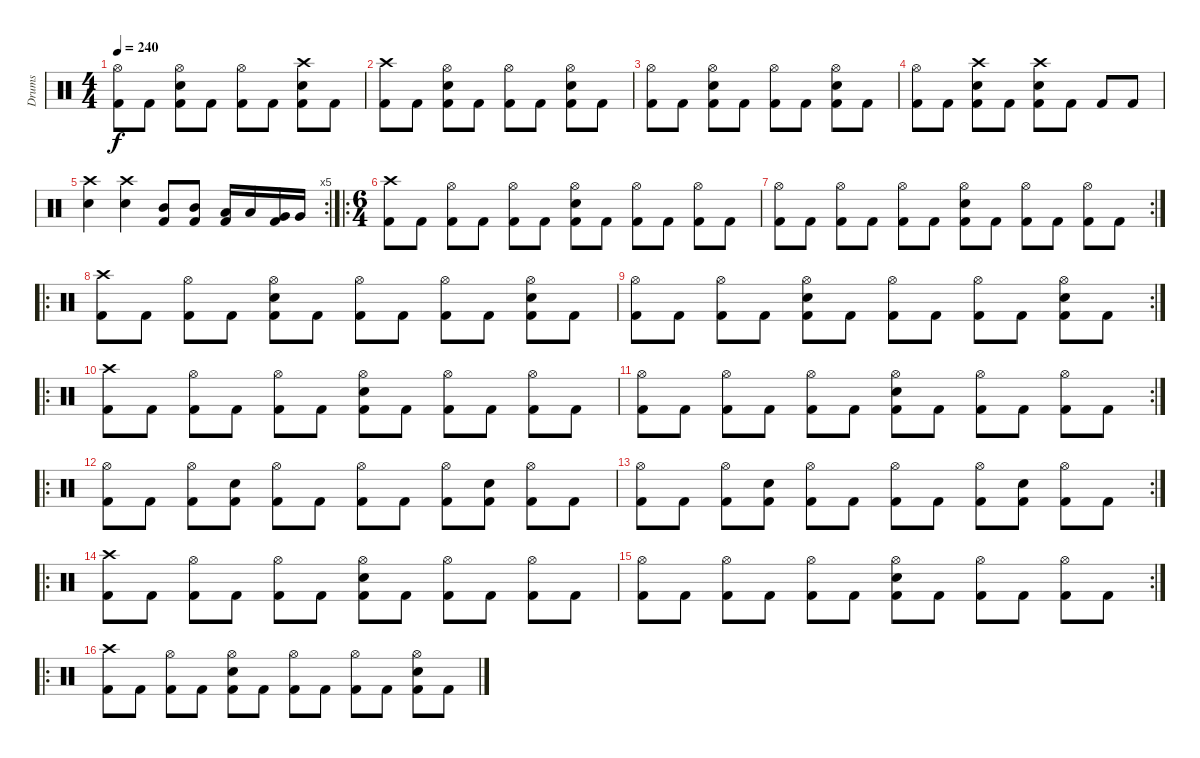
\track ("Drums" "Drums") {instrument percussion}
\staff {score}
\articulation defaults
\ts (4 4)
\tempo 240
\clef neutral
\ks c
("Hi-Hat (open)" "Kick (hit) 2").8{dy f} "Kick (hit) 2".8 ("Hi-Hat (open)" "Snare (hit) 2" "Kick (hit) 2").8 "Kick (hit) 2".8 ("Hi-Hat (open)" "Kick (hit) 2").8 "Kick (hit) 2".8 ("Crash high (hit)" "Snare (hit) 2" "Kick (hit) 2").8 "Kick (hit) 2".8 |
("Crash high (hit)" "Kick (hit) 2").8 "Kick (hit) 2".8 ("Hi-Hat (open)" "Snare (hit) 2" "Kick (hit) 2").8 "Kick (hit) 2".8 ("Hi-Hat (open)" "Kick (hit) 2").8 "Kick (hit) 2".8 ("Hi-Hat (open)" "Snare (hit) 2" "Kick (hit) 2").8 "Kick (hit) 2".8 |
("Hi-Hat (open)" "Kick (hit) 2").8 "Kick (hit) 2".8 ("Hi-Hat (open)" "Snare (hit) 2" "Kick (hit) 2").8 "Kick (hit) 2".8 ("Hi-Hat (open)" "Kick (hit) 2").8 "Kick (hit) 2".8 ("Hi-Hat (open)" "Snare (hit) 2" "Kick (hit) 2").8 "Kick (hit) 2".8 |
("Hi-Hat (open)" "Kick (hit) 2").8 "Kick (hit) 2".8 ("Crash high (hit)" "Snare (hit) 2" "Kick (hit) 2").8 "Kick (hit) 2".8 ("Crash high (hit)" "Snare (hit) 2" "Kick (hit) 2").8 "Kick (hit) 2".8 "Kick (hit) 2".8 "Kick (hit) 2".8 |
\rc 5
("Crash high (hit)" "Snare (hit) 2").4 ("Crash high (hit)" "Snare (hit) 2").4 ("Mid Tom (hit)" "Kick (hit) 2").8 ("Mid Tom (hit)" "Kick (hit) 2").8 ("Low Tom (hit)" "Kick (hit) 2").16 "Low Tom (hit)".16 ("Very Low Tom (hit)" "Kick (hit) 2").16 "Very Low Tom (hit)".16 |
\ro
\ts (6 4)
("Crash high (hit)" "Kick (hit) 2").8 "Kick (hit) 2".8 ("Hi-Hat (open)" "Kick (hit) 2").8 "Kick (hit) 2".8 ("Hi-Hat (open)" "Kick (hit) 2").8 "Kick (hit) 2".8 ("Hi-Hat (open)" "Snare (hit) 2" "Kick (hit) 2").8 "Kick (hit) 2".8 ("Hi-Hat (open)" "Kick (hit) 2").8 "Kick (hit) 2".8 ("Hi-Hat (open)" "Kick (hit) 2").8 "Kick (hit) 2".8 |
\rc 2
("Hi-Hat (open)" "Kick (hit) 2").8 "Kick (hit) 2".8 ("Hi-Hat (open)" "Kick (hit) 2").8 "Kick (hit) 2".8 ("Hi-Hat (open)" "Kick (hit) 2").8 "Kick (hit) 2".8 ("Hi-Hat (open)" "Snare (hit) 2" "Kick (hit) 2").8 "Kick (hit) 2".8 ("Hi-Hat (open)" "Kick (hit) 2").8 "Kick (hit) 2".8 ("Hi-Hat (open)" "Kick (hit) 2").8 "Kick (hit) 2".8 |
\ro
("Crash high (hit)" "Kick (hit) 2").8 "Kick (hit) 2".8 ("Hi-Hat (open)" "Kick (hit) 2").8 "Kick (hit) 2".8 ("Hi-Hat (open)" "Snare (hit) 2" "Kick (hit) 2").8 "Kick (hit) 2".8 ("Hi-Hat (open)" "Kick (hit) 2").8 "Kick (hit) 2".8 ("Hi-Hat (open)" "Kick (hit) 2").8 "Kick (hit) 2".8 ("Hi-Hat (open)" "Snare (hit) 2" "Kick (hit) 2").8 "Kick (hit) 2".8 |
\rc 2
("Hi-Hat (open)" "Kick (hit) 2").8 "Kick (hit) 2".8 ("Hi-Hat (open)" "Kick (hit) 2").8 "Kick (hit) 2".8 ("Hi-Hat (open)" "Snare (hit) 2" "Kick (hit) 2").8 "Kick (hit) 2".8 ("Hi-Hat (open)" "Kick (hit) 2").8 "Kick (hit) 2".8 ("Hi-Hat (open)" "Kick (hit) 2").8 "Kick (hit) 2".8 ("Hi-Hat (open)" "Snare (hit) 2" "Kick (hit) 2").8 "Kick (hit) 2".8 |
\ro
("Crash high (hit)" "Kick (hit) 2").8 "Kick (hit) 2".8 ("Hi-Hat (open)" "Kick (hit) 2").8 "Kick (hit) 2".8 ("Hi-Hat (open)" "Kick (hit) 2").8 "Kick (hit) 2".8 ("Hi-Hat (open)" "Snare (hit) 2" "Kick (hit) 2").8 "Kick (hit) 2".8 ("Hi-Hat (open)" "Kick (hit) 2").8 "Kick (hit) 2".8 ("Hi-Hat (open)" "Kick (hit) 2").8 "Kick (hit) 2".8 |
\rc 2
("Hi-Hat (open)" "Kick (hit) 2").8 "Kick (hit) 2".8 ("Hi-Hat (open)" "Kick (hit) 2").8 "Kick (hit) 2".8 ("Hi-Hat (open)" "Kick (hit) 2").8 "Kick (hit) 2".8 ("Hi-Hat (open)" "Snare (hit) 2" "Kick (hit) 2").8 "Kick (hit) 2".8 ("Hi-Hat (open)" "Kick (hit) 2").8 "Kick (hit) 2".8 ("Hi-Hat (open)" "Kick (hit) 2").8 "Kick (hit) 2".8 |
\ro
("Hi-Hat (open)" "Kick (hit) 2").8 "Kick (hit) 2".8 ("Hi-Hat (open)" "Kick (hit) 2").8 ("Snare (hit) 2" "Kick (hit) 2").8 ("Hi-Hat (open)" "Kick (hit) 2").8 "Kick (hit) 2".8 ("Hi-Hat (open)" "Kick (hit) 2").8 "Kick (hit) 2".8 ("Hi-Hat (open)" "Kick (hit) 2").8 ("Snare (hit) 2" "Kick (hit) 2").8 ("Hi-Hat (open)" "Kick (hit) 2").8 "Kick (hit) 2".8 |
\rc 2
("Hi-Hat (open)" "Kick (hit) 2").8 "Kick (hit) 2".8 ("Hi-Hat (open)" "Kick (hit) 2").8 ("Snare (hit) 2" "Kick (hit) 2").8 ("Hi-Hat (open)" "Kick (hit) 2").8 "Kick (hit) 2".8 ("Hi-Hat (open)" "Kick (hit) 2").8 "Kick (hit) 2".8 ("Hi-Hat (open)" "Kick (hit) 2").8 ("Snare (hit) 2" "Kick (hit) 2").8 ("Hi-Hat (open)" "Kick (hit) 2").8 "Kick (hit) 2".8 |
\ro
("Crash high (hit)" "Kick (hit) 2").8 "Kick (hit) 2".8 ("Hi-Hat (open)" "Kick (hit) 2").8 "Kick (hit) 2".8 ("Hi-Hat (open)" "Kick (hit) 2").8 "Kick (hit) 2".8 ("Hi-Hat (open)" "Snare (hit) 2" "Kick (hit) 2").8 "Kick (hit) 2".8 ("Hi-Hat (open)" "Kick (hit) 2").8 "Kick (hit) 2".8 ("Hi-Hat (open)" "Kick (hit) 2").8 "Kick (hit) 2".8 |
\rc 2
("Hi-Hat (open)" "Kick (hit) 2").8 "Kick (hit) 2".8 ("Hi-Hat (open)" "Kick (hit) 2").8 "Kick (hit) 2".8 ("Hi-Hat (open)" "Kick (hit) 2").8 "Kick (hit) 2".8 ("Hi-Hat (open)" "Snare (hit) 2" "Kick (hit) 2").8 "Kick (hit) 2".8 ("Hi-Hat (open)" "Kick (hit) 2").8 "Kick (hit) 2".8 ("Hi-Hat (open)" "Kick (hit) 2").8 "Kick (hit) 2".8 |
\ro
("Crash high (hit)" "Kick (hit) 2").8 "Kick (hit) 2".8 ("Hi-Hat (open)" "Kick (hit) 2").8 "Kick (hit) 2".8 ("Hi-Hat (open)" "Snare (hit) 2" "Kick (hit) 2").8 "Kick (hit) 2".8 ("Hi-Hat (open)" "Kick (hit) 2").8 "Kick (hit) 2".8 ("Hi-Hat (open)" "Kick (hit) 2").8 "Kick (hit) 2".8 ("Hi-Hat (open)" "Snare (hit) 2" "Kick (hit) 2").8 "Kick (hit) 2".8
